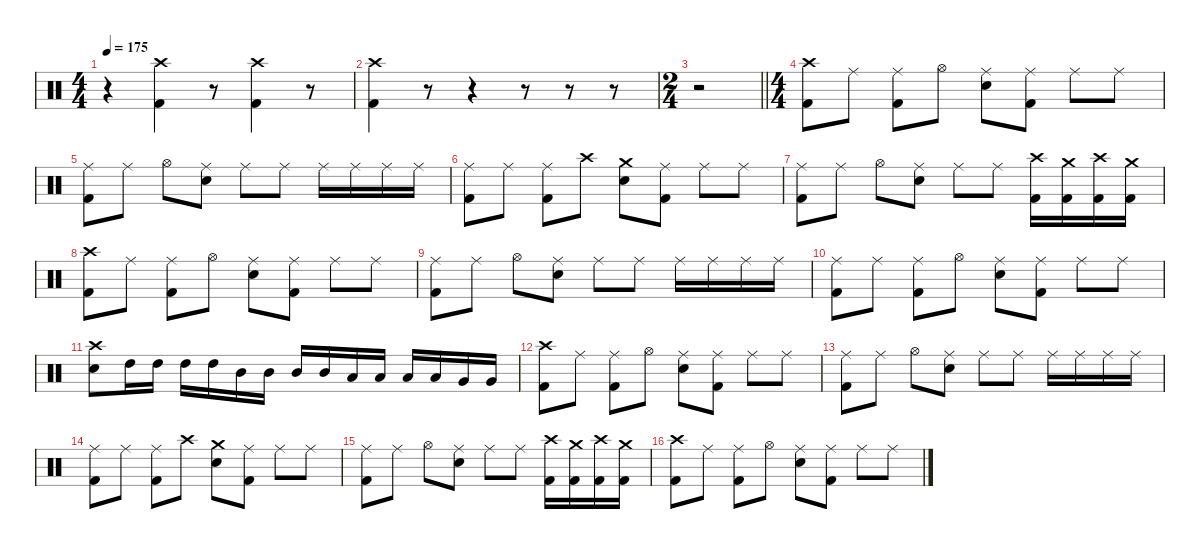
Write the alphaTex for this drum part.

\defaultSystemsLayout 4
\hideDynamics
\bracketExtendMode nobrackets
\singleTrackTrackNamePolicy hidden
\multiTrackTrackNamePolicy hidden
\firstSystemTrackNameMode fullname
\firstSystemTrackNameOrientation horizontal
\otherSystemsTrackNameOrientation horizontal
\track ("Fredrik Andersson" "drm.") {instrument percussion}
\staff {score}
\articulation defaults
\ts (4 4)
\tempo 175
\clef neutral
\ks c
r.4{dy f beam Down} ("Crash high (hit)" "Kick (hit) 2").4{beam Down} r.8{beam Down} ("Crash high (hit)" "Kick (hit) 2").4{beam Down} r.8{beam Down} |
("Crash high (hit)" "Kick (hit) 2").4{beam Down} r.8{beam Down} r.4{beam Down} r.8{beam Down} r.8{beam Down} r.8{beam Down} |
\ts (2 4)
\beaming (8 2 2)
\barLineRight lightlight
r.2{beam Down} |
\ts (4 4)
\beaming (8 2 2 2 2)
("Crash high (hit)" "Kick (hit) 2").8{beam Down} "Ride (middle)".8{beam Down} ("Ride (middle)" "Kick (hit) 2").8{beam Down} "Hi-Hat (open)".8{beam Down} ("Ride (middle)" "Snare (hit) 2").8{beam Down} ("Ride (middle)" "Kick (hit) 2").8{beam Down} "Ride (middle)".8{beam Down} "Ride (middle)".8{beam Down} |
("Ride (middle)" "Kick (hit) 2").8{beam Down} "Ride (middle)".8{beam Down} "Hi-Hat (open)".8{beam Down} ("Ride (middle)" "Snare (hit) 2").8{beam Down} "Ride (middle)".8{beam Down} "Ride (middle)".8{beam Down} "Ride (middle)".16{beam Down} "Ride (middle)".16{beam Down} "Ride (middle)".16{beam Down} "Ride (middle)".16{beam Down} |
("Ride (middle)" "Kick (hit) 2").8{beam Down} "Ride (middle)".8{beam Down} ("Ride (middle)" "Kick (hit) 2").8{beam Down} "Crash high (hit)".8{beam Down} ("Crash medium (hit)" "Snare (hit) 2").8{beam Down} ("Ride (middle)" "Kick (hit) 2").8{beam Down} "Ride (middle)".8{beam Down} "Ride (middle)".8{beam Down} |
("Ride (middle)" "Kick (hit) 2").8{beam Down} "Ride (middle)".8{beam Down} "Hi-Hat (open)".8{beam Down} ("Ride (middle)" "Snare (hit) 2").8{beam Down} "Ride (middle)".8{beam Down} "Ride (middle)".8{beam Down} ("Crash high (hit)" "Kick (hit) 2").16{beam Down} ("Crash medium (hit)" "Kick (hit) 2").16{beam Down} ("Crash high (hit)" "Kick (hit) 2").16{beam Down} ("Crash medium (hit)" "Kick (hit) 2").16{beam Down} |
("Crash high (hit)" "Kick (hit) 2").8{beam Down} "Ride (middle)".8{beam Down} ("Ride (middle)" "Kick (hit) 2").8{beam Down} "Hi-Hat (open)".8{beam Down} ("Ride (middle)" "Snare (hit) 2").8{beam Down} ("Ride (middle)" "Kick (hit) 2").8{beam Down} "Ride (middle)".8{beam Down} "Ride (middle)".8{beam Down} |
("Ride (middle)" "Kick (hit) 2").8{beam Down} "Ride (middle)".8{beam Down} "Hi-Hat (open)".8{beam Down} ("Ride (middle)" "Snare (hit) 2").8{beam Down} "Ride (middle)".8{beam Down} "Ride (middle)".8{beam Down} "Ride (middle)".16{beam Down} "Ride (middle)".16{beam Down} "Ride (middle)".16{beam Down} "Ride (middle)".16{beam Down} |
("Ride (middle)" "Kick (hit) 2").8{beam Down} "Ride (middle)".8{beam Down} ("Ride (middle)" "Kick (hit) 2").8{beam Down} "Hi-Hat (open)".8{beam Down} ("Ride (middle)" "Snare (hit) 2").8{beam Down} ("Ride (middle)" "Kick (hit) 2").8{beam Down} "Ride (middle)".8{beam Down} "Ride (middle)".8{beam Down} |
("Crash high (hit)" "Snare (hit) 2").8{beam Down} "High Tom (hit)".16{beam Down} "High Tom (hit)".16{beam Down} "High Tom (hit)".16{beam Down} "High Tom (hit)".16{beam Down} "Mid Tom (hit)".16{beam Down} "Mid Tom (hit)".16{beam Down} "Mid Tom (hit)".16{beam Up} "Mid Tom (hit)".16{beam Up} "Low Tom (hit)".16{beam Up} "Low Tom (hit)".16{beam Up} "Low Tom (hit)".16{beam Up} "Low Tom (hit)".16{beam Up} "Very Low Tom (hit)".16{beam Up} "Very Low Tom (hit)".16{beam Up} |
("Crash high (hit)" "Kick (hit) 2").8{beam Down} "Ride (middle)".8{beam Down} ("Ride (middle)" "Kick (hit) 2").8{beam Down} "Hi-Hat (open)".8{beam Down} ("Ride (middle)" "Snare (hit) 2").8{beam Down} ("Ride (middle)" "Kick (hit) 2").8{beam Down} "Ride (middle)".8{beam Down} "Ride (middle)".8{beam Down} |
("Ride (middle)" "Kick (hit) 2").8{beam Down} "Ride (middle)".8{beam Down} "Hi-Hat (open)".8{beam Down} ("Ride (middle)" "Snare (hit) 2").8{beam Down} "Ride (middle)".8{beam Down} "Ride (middle)".8{beam Down} "Ride (middle)".16{beam Down} "Ride (middle)".16{beam Down} "Ride (middle)".16{beam Down} "Ride (middle)".16{beam Down} |
("Ride (middle)" "Kick (hit) 2").8{beam Down} "Ride (middle)".8{beam Down} ("Ride (middle)" "Kick (hit) 2").8{beam Down} "Crash high (hit)".8{beam Down} ("Crash medium (hit)" "Snare (hit) 2").8{beam Down} ("Ride (middle)" "Kick (hit) 2").8{beam Down} "Ride (middle)".8{beam Down} "Ride (middle)".8{beam Down} |
("Ride (middle)" "Kick (hit) 2").8{beam Down} "Ride (middle)".8{beam Down} "Hi-Hat (open)".8{beam Down} ("Ride (middle)" "Snare (hit) 2").8{beam Down} "Ride (middle)".8{beam Down} "Ride (middle)".8{beam Down} ("Crash high (hit)" "Kick (hit) 2").16{beam Down} ("Crash medium (hit)" "Kick (hit) 2").16{beam Down} ("Crash high (hit)" "Kick (hit) 2").16{beam Down} ("Crash medium (hit)" "Kick (hit) 2").16{beam Down} |
("Crash high (hit)" "Kick (hit) 2").8{beam Down} "Ride (middle)".8{beam Down} ("Ride (middle)" "Kick (hit) 2").8{beam Down} "Hi-Hat (open)".8{beam Down} ("Ride (middle)" "Snare (hit) 2").8{beam Down} ("Ride (middle)" "Kick (hit) 2").8{beam Down} "Ride (middle)".8{beam Down} "Ride (middle)".8{beam Down}
